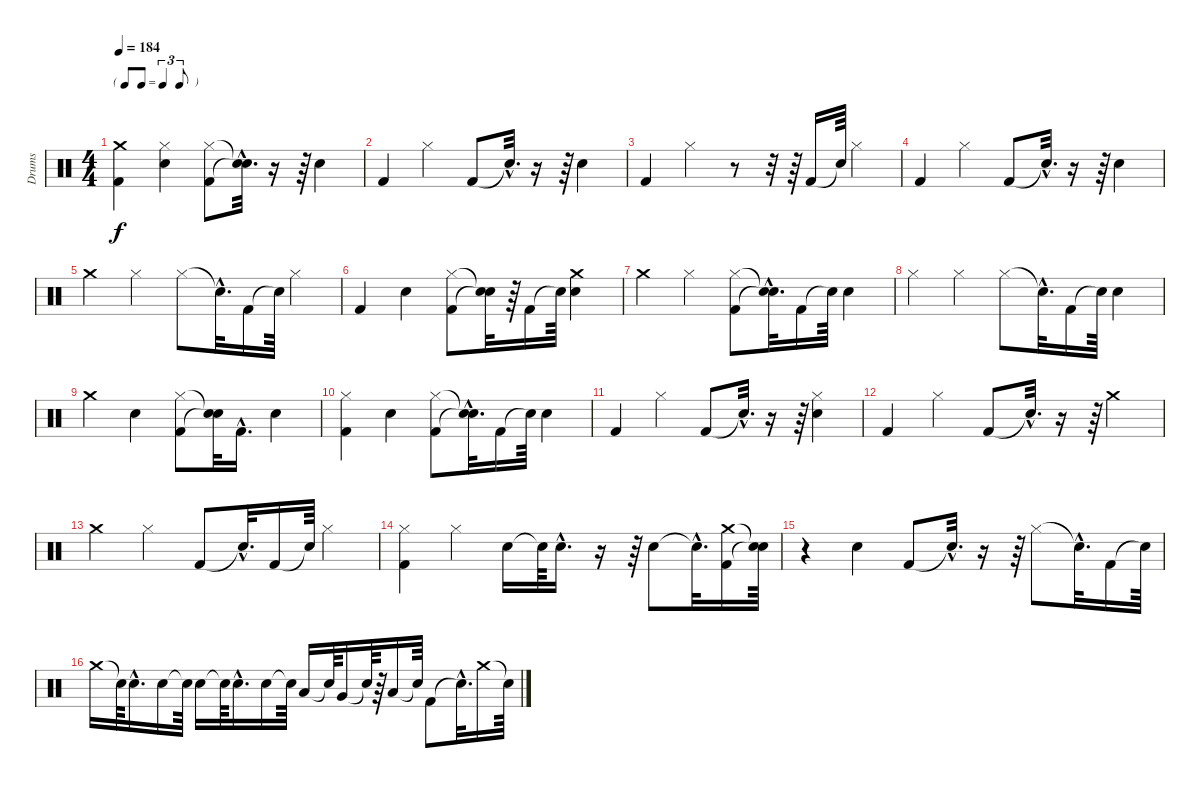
\track ("Drums" "Drums") {instrument percussion}
\staff {score}
\articulation defaults
\ts (4 4)
\tf triplet8th
\tempo 184
\clef neutral
\ks c
("Crash medium (hit)" "Kick (hit) 2").4{dy f} ("Hi-Hat (closed)" "Snare (hit) 2").4 ("Hi-Hat (closed)" "Kick (hit) 2").8 ("Snare (hit)"{hac t} "Snare (hit)"{hac t}).32{d} r.16 r.64 "Snare (hit) 2".4 |
"Kick (hit) 2".4 "Hi-Hat (closed)".4 "Kick (hit) 2".8 "Snare (hit)"{hac t}.32{d} r.16 r.64 "Snare (hit) 2".4 |
"Kick (hit) 2".4 "Hi-Hat (closed)".4 r.8 r.32 r.64 "Kick (hit) 2".16 "Snare (hit)"{t}.64 "Hi-Hat (closed)".4 |
"Kick (hit) 2".4 "Hi-Hat (closed)".4 "Kick (hit) 2".8 "Snare (hit)"{hac t}.32{d} r.16 r.64 "Snare (hit) 2".4 |
"Crash medium (hit)".4 "Hi-Hat (closed)".4 "Hi-Hat (closed)".8 "Snare (hit)"{hac t}.32{d} "Kick (hit) 2".16 "Snare (hit)"{t}.64 "Hi-Hat (closed)".4 |
"Kick (hit) 2".4 "Snare (hit) 2".4 ("Hi-Hat (closed)" "Kick (hit) 2").8 ("Snare (hit)"{t} "Snare (hit)"{t}).32 r.64 "Kick (hit) 2".16 "Snare (hit)"{t}.64 ("Crash medium (hit)" "Snare (hit) 2").4 |
"Crash medium (hit)".4 "Hi-Hat (closed)".4 ("Hi-Hat (closed)" "Kick (hit) 2").8 ("Snare (hit)"{hac t} "Snare (hit)"{hac t}).32{d} "Kick (hit) 2".16 "Snare (hit)"{t}.64 "Snare (hit) 2".4 |
"Hi-Hat (closed)".4 "Hi-Hat (closed)".4 "Hi-Hat (closed)".8 "Snare (hit)"{hac t}.32{d} "Kick (hit) 2".16 "Snare (hit)"{t}.64 "Snare (hit) 2".4 |
"Crash medium (hit)".4 "Snare (hit) 2".4 ("Hi-Hat (closed)" "Kick (hit) 2").8 ("Snare (hit)"{t} "Snare (hit)"{t}).32 "Kick (hit) 2"{hac}.16{d} "Snare (hit) 2".4 |
("Hi-Hat (closed)" "Kick (hit) 2").4 "Snare (hit) 2".4 ("Hi-Hat (closed)" "Kick (hit) 2").8 ("Snare (hit)"{hac t} "Snare (hit)"{hac t}).32{d} "Kick (hit) 2".16 "Snare (hit)"{t}.64 "Snare (hit) 2".4 |
"Kick (hit) 2".4 "Hi-Hat (closed)".4 "Kick (hit) 2".8 "Snare (hit)"{hac t}.32{d} r.16 r.64 ("Hi-Hat (closed)" "Snare (hit) 2").4 |
"Kick (hit) 2".4 "Hi-Hat (closed)".4 "Kick (hit) 2".8 "Snare (hit)"{hac t}.32{d} r.16 r.64 "Crash medium (hit)".4 |
"Crash medium (hit)".4 "Hi-Hat (closed)".4 "Kick (hit) 2".8 "Snare (hit)"{hac t}.32{d} "Kick (hit) 2".16 "Snare (hit)"{t}.64 "Hi-Hat (closed)".4 |
("Hi-Hat (closed)" "Kick (hit) 2").4 "Hi-Hat (closed)".4 "Snare (hit) 2".16 "Snare (hit)"{t}.64 "Snare (hit) 2"{hac}.16{d} r.16 r.64 "Snare (hit) 2".8 "Snare (hit)"{hac t}.32{d} ("Crash medium (hit)" "Kick (hit) 2").16 ("Snare (hit)"{t} "Snare (hit)"{t}).64 |
r.4 "Snare (hit) 2".4 "Kick (hit) 2".8 "Snare (hit)"{hac t}.32{d} r.16 r.64 "Hi-Hat (closed)".8 "Snare (hit)"{hac t}.32{d} "Kick (hit) 2".16 "Snare (hit)"{t}.64 |
"Crash medium (hit)".16 "Snare (hit)"{t}.64 "Snare (hit) 2"{hac}.16{d} "Snare (hit) 2".16 "Snare (hit)"{t}.64 "Snare (hit) 2".16 "Snare (hit)"{t}.64 "Snare (hit) 2"{hac}.16{d} "Snare (hit) 2".16 "Snare (hit)"{t}.64 "Low Tom (hit)".16 "Snare (hit)"{t}.64 "Very Low Tom (hit)".16 "Snare (hit)"{t}.64 r.64 "Low Floor Tom (hit)".16 "Snare (hit)"{t}.64 "Kick (hit) 2".8 "Snare (hit)"{hac t}.32{d} "Crash medium (hit)".16 "Snare (hit)"{t}.64
